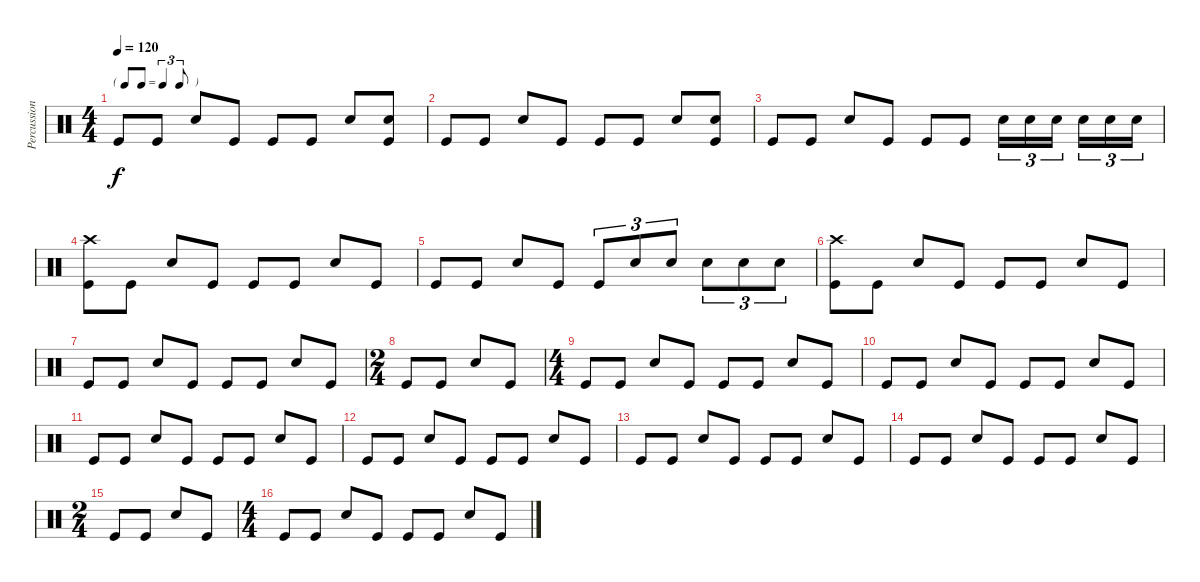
\track ("Percussion" "Percussion") {instrument percussion}
\staff {score}
\articulation defaults
\ts (4 4)
\tf triplet8th
\tempo 120
\clef neutral
\ks c "Kick (hit)".8{dy f} "Kick (hit)".8 "Snare (hit) 2".8 "Kick (hit)".8 "Kick (hit)".8 "Kick (hit)".8 "Snare (hit) 2".8
("Snare (hit) 2" "Kick (hit)").8 |
"Kick (hit)".8 "Kick (hit)".8 "Snare (hit) 2".8 "Kick (hit)".8 "Kick (hit)".8 "Kick (hit)".8 "Snare (hit) 2".8 ("Snare (hit) 2" "Kick (hit)").8 |
"Kick (hit)".8 "Kick (hit)".8 "Snare (hit) 2".8 "Kick (hit)".8 "Kick (hit)".8 "Kick (hit)".8 "Snare (hit) 2".16{tu (3 2)} "Snare (hit) 2".16{tu (3 2)} "Snare (hit) 2".16{tu (3 2)} "Snare (hit) 2".16{tu (3 2)} "Snare (hit) 2".16{tu (3 2)} "Snare (hit) 2".16{tu (3 2)} |
("Crash high (hit)" "Kick (hit)").8 "Kick (hit)".8 "Snare (hit) 2".8 "Kick (hit)".8 "Kick (hit)".8 "Kick (hit)".8 "Snare (hit) 2".8 "Kick (hit)".8 |
"Kick (hit)".8 "Kick (hit)".8 "Snare (hit) 2".8 "Kick (hit)".8 "Kick (hit)".8{tu (3 2)} "Snare (hit) 2".8{tu (3 2)} "Snare (hit) 2".8{tu (3 2)} "Snare (hit) 2".8{tu (3 2)} "Snare (hit) 2".8{tu (3 2)} "Snare (hit) 2".8{tu (3 2)} |
("Crash high (hit)" "Kick (hit)").8 "Kick (hit)".8 "Snare (hit) 2".8 "Kick (hit)".8 "Kick (hit)".8 "Kick (hit)".8 "Snare (hit) 2".8 "Kick (hit)".8 |
"Kick (hit)".8 "Kick (hit)".8 "Snare (hit) 2".8 "Kick (hit)".8 "Kick (hit)".8 "Kick (hit)".8 "Snare (hit) 2".8 "Kick (hit)".8 |
\ts (2 4)
"Kick (hit)".8 "Kick (hit)".8 "Snare (hit) 2".8 "Kick (hit)".8 |
\ts (4 4)
"Kick (hit)".8 "Kick (hit)".8 "Snare (hit) 2".8 "Kick (hit)".8 "Kick (hit)".8 "Kick (hit)".8 "Snare (hit) 2".8 "Kick (hit)".8 |
"Kick (hit)".8 "Kick (hit)".8 "Snare (hit) 2".8 "Kick (hit)".8 "Kick (hit)".8 "Kick (hit)".8 "Snare (hit) 2".8 "Kick (hit)".8 |
"Kick (hit)".8 "Kick (hit)".8 "Snare (hit) 2".8 "Kick (hit)".8 "Kick (hit)".8 "Kick (hit)".8 "Snare (hit) 2".8 "Kick (hit)".8 |
"Kick (hit)".8 "Kick (hit)".8 "Snare (hit) 2".8 "Kick (hit)".8 "Kick (hit)".8 "Kick (hit)".8 "Snare (hit) 2".8 "Kick (hit)".8 |
"Kick (hit)".8 "Kick (hit)".8 "Snare (hit) 2".8 "Kick (hit)".8 "Kick (hit)".8 "Kick (hit)".8 "Snare (hit) 2".8 "Kick (hit)".8 |
"Kick (hit)".8 "Kick (hit)".8 "Snare (hit) 2".8 "Kick (hit)".8 "Kick (hit)".8 "Kick (hit)".8 "Snare (hit) 2".8 "Kick (hit)".8 |
\ts (2 4)
"Kick (hit)".8 "Kick (hit)".8 "Snare (hit) 2".8 "Kick (hit)".8 |
\ts (4 4)
"Kick (hit)".8 "Kick (hit)".8 "Snare (hit) 2".8 "Kick (hit)".8 "Kick (hit)".8 "Kick (hit)".8 "Snare (hit) 2".8 "Kick (hit)".8
